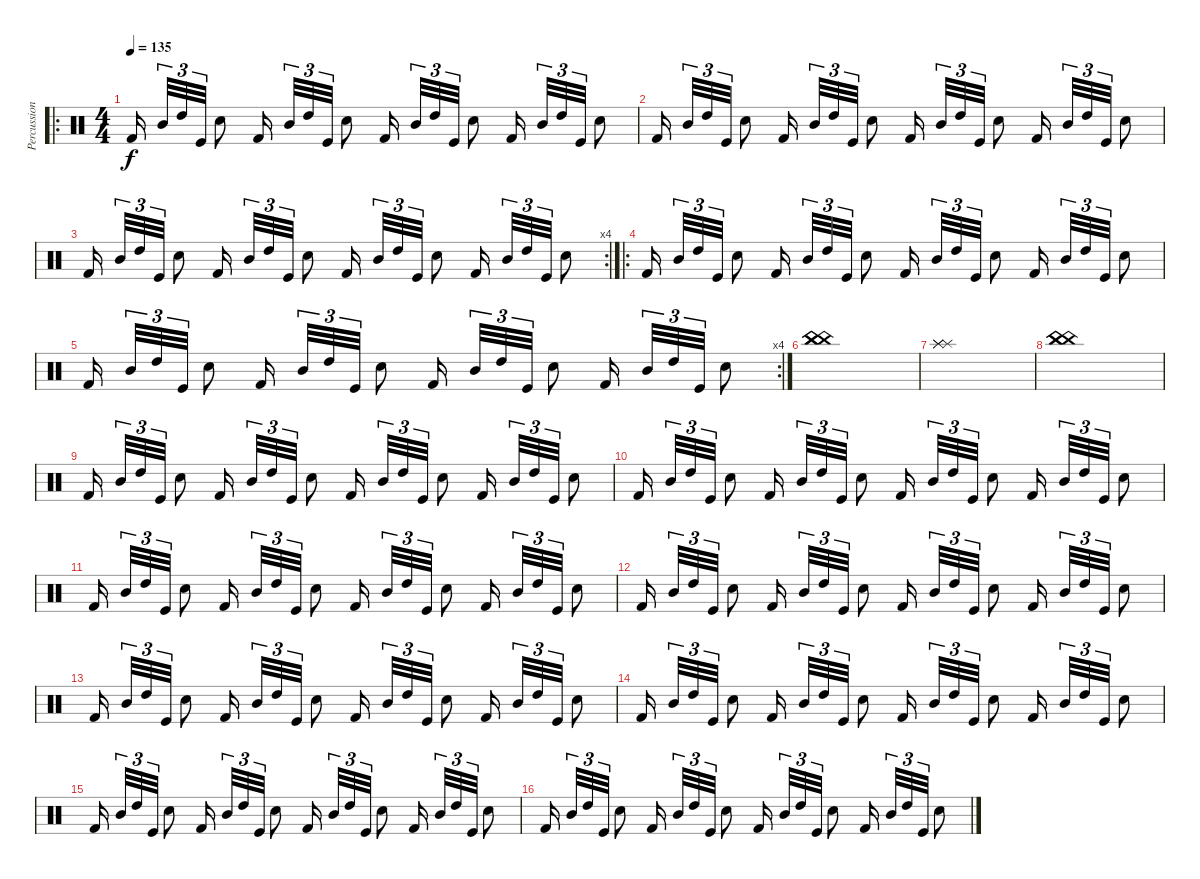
\track ("Percussion" "Percussion") {instrument percussion}
\staff {score}
\articulation defaults
\ro
\ts (4 4)
\tempo 135
\clef neutral
\ks c "Kick (hit) 2".16{dy f} "Mid Tom (hit)".32{tu (3 2)} "High Tom (hit)".32{tu (3 2)} "Kick (hit)".32{tu (3 2)} "Snare (hit) 2".8 "Kick (hit) 2".16 "Mid Tom (hit)".32{tu (3 2)} "High Tom (hit)".32{tu (3 2)} "Kick (hit)".32{tu (3 2)} "Snare (hit) 2".8 "Kick (hit) 2".16 "Mid Tom (hit)".32{tu (3 2)} "High Tom (hit)".32{tu (3 2)} "Kick (hit)".32{tu (3 2)} "Snare (hit) 2".8 "Kick (hit) 2".16 "Mid Tom (hit)".32{tu (3 2)} "High Tom (hit)".32{tu (3 2)} "Kick (hit)".32{tu (3 2)} "Snare (hit) 2".8
|
"Kick (hit) 2".16 "Mid Tom (hit)".32{tu (3 2)} "High Tom (hit)".32{tu (3 2)} "Kick (hit)".32{tu (3 2)} "Snare (hit) 2".8 "Kick (hit) 2".16 "Mid Tom (hit)".32{tu (3 2)} "High Tom (hit)".32{tu (3 2)} "Kick (hit)".32{tu (3 2)} "Snare (hit) 2".8 "Kick (hit) 2".16 "Mid Tom (hit)".32{tu (3 2)} "High Tom (hit)".32{tu (3 2)} "Kick (hit)".32{tu (3 2)} "Snare (hit) 2".8 "Kick (hit) 2".16 "Mid Tom (hit)".32{tu (3 2)} "High Tom (hit)".32{tu (3 2)} "Kick (hit)".32{tu (3 2)} "Snare (hit) 2".8 |
\rc 4 "Kick (hit) 2".16 "Mid Tom (hit)".32{tu (3 2)} "High Tom (hit)".32{tu (3 2)} "Kick (hit)".32{tu (3 2)} "Snare (hit) 2".8 "Kick (hit) 2".16 "Mid Tom (hit)".32{tu (3 2)} "High Tom (hit)".32{tu (3 2)} "Kick (hit)".32{tu (3 2)} "Snare (hit) 2".8 "Kick (hit) 2".16 "Mid Tom (hit)".32{tu (3 2)} "High Tom (hit)".32{tu (3 2)} "Kick (hit)".32{tu (3 2)} "Snare (hit) 2".8 "Kick (hit) 2".16 "Mid Tom (hit)".32{tu (3 2)} "High Tom (hit)".32{tu (3 2)} "Kick (hit)".32{tu (3 2)} "Snare (hit) 2".8
|
\ro "Kick (hit) 2".16 "Mid Tom (hit)".32{tu (3 2)} "High Tom (hit)".32{tu (3 2)} "Kick (hit)".32{tu (3 2)} "Snare (hit) 2".8 "Kick (hit) 2".16 "Mid Tom (hit)".32{tu (3 2)} "High Tom (hit)".32{tu (3 2)} "Kick (hit)".32{tu (3 2)} "Snare (hit) 2".8 "Kick (hit) 2".16 "Mid Tom (hit)".32{tu (3 2)} "High Tom (hit)".32{tu (3 2)} "Kick (hit)".32{tu (3 2)} "Snare (hit) 2".8 "Kick (hit) 2".16 "Mid Tom (hit)".32{tu (3 2)} "High Tom (hit)".32{tu (3 2)} "Kick (hit)".32{tu (3 2)} "Snare (hit) 2".8
|
\rc 4 "Kick (hit) 2".16 "Mid Tom (hit)".32{tu (3 2)} "High Tom (hit)".32{tu (3 2)} "Kick (hit)".32{tu (3 2)} "Snare (hit) 2".8 "Kick (hit) 2".16 "Mid Tom (hit)".32{tu (3 2)} "High Tom (hit)".32{tu (3 2)} "Kick (hit)".32{tu (3 2)} "Snare (hit) 2".8 "Kick (hit) 2".16 "Mid Tom (hit)".32{tu (3 2)} "High Tom (hit)".32{tu (3 2)} "Kick (hit)".32{tu (3 2)} "Snare (hit) 2".8 "Kick (hit) 2".16 "Mid Tom (hit)".32{tu (3 2)} "High Tom (hit)".32{tu (3 2)} "Kick (hit)".32{tu (3 2)} "Snare (hit) 2".8
|
("China (hit)" "China (hit)" "China (hit)").1 |
("Splash (hit)" "Splash (hit)" "Splash (hit)").1 |
("China (hit)" "China (hit)" "China (hit)").1 |
"Kick (hit) 2".16 "Mid Tom (hit)".32{tu (3 2)} "High Tom (hit)".32{tu (3 2)} "Kick (hit)".32{tu (3 2)} "Snare (hit) 2".8 "Kick (hit) 2".16 "Mid Tom (hit)".32{tu (3 2)} "High Tom (hit)".32{tu (3 2)} "Kick (hit)".32{tu (3 2)} "Snare (hit) 2".8 "Kick (hit) 2".16 "Mid Tom (hit)".32{tu (3 2)} "High Tom (hit)".32{tu (3 2)} "Kick (hit)".32{tu (3 2)} "Snare (hit) 2".8 "Kick (hit) 2".16 "Mid Tom (hit)".32{tu (3 2)} "High Tom (hit)".32{tu (3 2)} "Kick (hit)".32{tu (3 2)} "Snare (hit) 2".8 |
"Kick (hit) 2".16 "Mid Tom (hit)".32{tu (3 2)} "High Tom (hit)".32{tu (3 2)} "Kick (hit)".32{tu (3 2)} "Snare (hit) 2".8 "Kick (hit) 2".16 "Mid Tom (hit)".32{tu (3 2)} "High Tom (hit)".32{tu (3 2)} "Kick (hit)".32{tu (3 2)} "Snare (hit) 2".8 "Kick (hit) 2".16 "Mid Tom (hit)".32{tu (3 2)} "High Tom (hit)".32{tu (3 2)} "Kick (hit)".32{tu (3 2)} "Snare (hit) 2".8 "Kick (hit) 2".16 "Mid Tom (hit)".32{tu (3 2)} "High Tom (hit)".32{tu (3 2)} "Kick (hit)".32{tu (3 2)} "Snare (hit) 2".8 |
"Kick (hit) 2".16 "Mid Tom (hit)".32{tu (3 2)} "High Tom (hit)".32{tu (3 2)} "Kick (hit)".32{tu (3 2)} "Snare (hit) 2".8 "Kick (hit) 2".16 "Mid Tom (hit)".32{tu (3 2)} "High Tom (hit)".32{tu (3 2)} "Kick (hit)".32{tu (3 2)} "Snare (hit) 2".8 "Kick (hit) 2".16 "Mid Tom (hit)".32{tu (3 2)} "High Tom (hit)".32{tu (3 2)} "Kick (hit)".32{tu (3 2)} "Snare (hit) 2".8 "Kick (hit) 2".16 "Mid Tom (hit)".32{tu (3 2)} "High Tom (hit)".32{tu (3 2)} "Kick (hit)".32{tu (3 2)} "Snare (hit) 2".8 |
"Kick (hit) 2".16 "Mid Tom (hit)".32{tu (3 2)} "High Tom (hit)".32{tu (3 2)} "Kick (hit)".32{tu (3 2)} "Snare (hit) 2".8 "Kick (hit) 2".16 "Mid Tom (hit)".32{tu (3 2)} "High Tom (hit)".32{tu (3 2)} "Kick (hit)".32{tu (3 2)} "Snare (hit) 2".8 "Kick (hit) 2".16 "Mid Tom (hit)".32{tu (3 2)} "High Tom (hit)".32{tu (3 2)} "Kick (hit)".32{tu (3 2)} "Snare (hit) 2".8 "Kick (hit) 2".16 "Mid Tom (hit)".32{tu (3 2)} "High Tom (hit)".32{tu (3 2)} "Kick (hit)".32{tu (3 2)} "Snare (hit) 2".8 |
"Kick (hit) 2".16 "Mid Tom (hit)".32{tu (3 2)} "High Tom (hit)".32{tu (3 2)} "Kick (hit)".32{tu (3 2)} "Snare (hit) 2".8 "Kick (hit) 2".16 "Mid Tom (hit)".32{tu (3 2)} "High Tom (hit)".32{tu (3 2)} "Kick (hit)".32{tu (3 2)} "Snare (hit) 2".8 "Kick (hit) 2".16 "Mid Tom (hit)".32{tu (3 2)} "High Tom (hit)".32{tu (3 2)} "Kick (hit)".32{tu (3 2)} "Snare (hit) 2".8 "Kick (hit) 2".16 "Mid Tom (hit)".32{tu (3 2)} "High Tom (hit)".32{tu (3 2)} "Kick (hit)".32{tu (3 2)} "Snare (hit) 2".8 |
"Kick (hit) 2".16 "Mid Tom (hit)".32{tu (3 2)} "High Tom (hit)".32{tu (3 2)} "Kick (hit)".32{tu (3 2)} "Snare (hit) 2".8 "Kick (hit) 2".16 "Mid Tom (hit)".32{tu (3 2)} "High Tom (hit)".32{tu (3 2)} "Kick (hit)".32{tu (3 2)} "Snare (hit) 2".8 "Kick (hit) 2".16 "Mid Tom (hit)".32{tu (3 2)} "High Tom (hit)".32{tu (3 2)} "Kick (hit)".32{tu (3 2)} "Snare (hit) 2".8 "Kick (hit) 2".16 "Mid Tom (hit)".32{tu (3 2)} "High Tom (hit)".32{tu (3 2)} "Kick (hit)".32{tu (3 2)} "Snare (hit) 2".8 |
"Kick (hit) 2".16 "Mid Tom (hit)".32{tu (3 2)} "High Tom (hit)".32{tu (3 2)} "Kick (hit)".32{tu (3 2)} "Snare (hit) 2".8 "Kick (hit) 2".16 "Mid Tom (hit)".32{tu (3 2)} "High Tom (hit)".32{tu (3 2)} "Kick (hit)".32{tu (3 2)} "Snare (hit) 2".8 "Kick (hit) 2".16 "Mid Tom (hit)".32{tu (3 2)} "High Tom (hit)".32{tu (3 2)} "Kick (hit)".32{tu (3 2)} "Snare (hit) 2".8 "Kick (hit) 2".16 "Mid Tom (hit)".32{tu (3 2)} "High Tom (hit)".32{tu (3 2)} "Kick (hit)".32{tu (3 2)} "Snare (hit) 2".8 |
"Kick (hit) 2".16 "Mid Tom (hit)".32{tu (3 2)} "High Tom (hit)".32{tu (3 2)} "Kick (hit)".32{tu (3 2)} "Snare (hit) 2".8 "Kick (hit) 2".16 "Mid Tom (hit)".32{tu (3 2)} "High Tom (hit)".32{tu (3 2)} "Kick (hit)".32{tu (3 2)} "Snare (hit) 2".8 "Kick (hit) 2".16 "Mid Tom (hit)".32{tu (3 2)} "High Tom (hit)".32{tu (3 2)} "Kick (hit)".32{tu (3 2)} "Snare (hit) 2".8 "Kick (hit) 2".16 "Mid Tom (hit)".32{tu (3 2)} "High Tom (hit)".32{tu (3 2)} "Kick (hit)".32{tu (3 2)} "Snare (hit) 2".8
